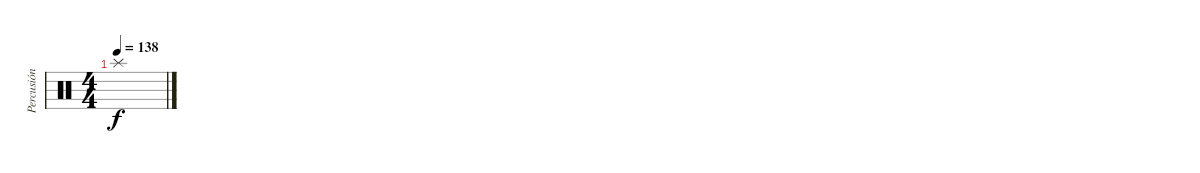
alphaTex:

\track ("Percusión" "Percusión") {instrument percussion}
\staff {score}
\articulation defaults
\ts (4 4)
\tempo 138
\clef neutral
\ks c "Splash (hit)".1{dy f}
